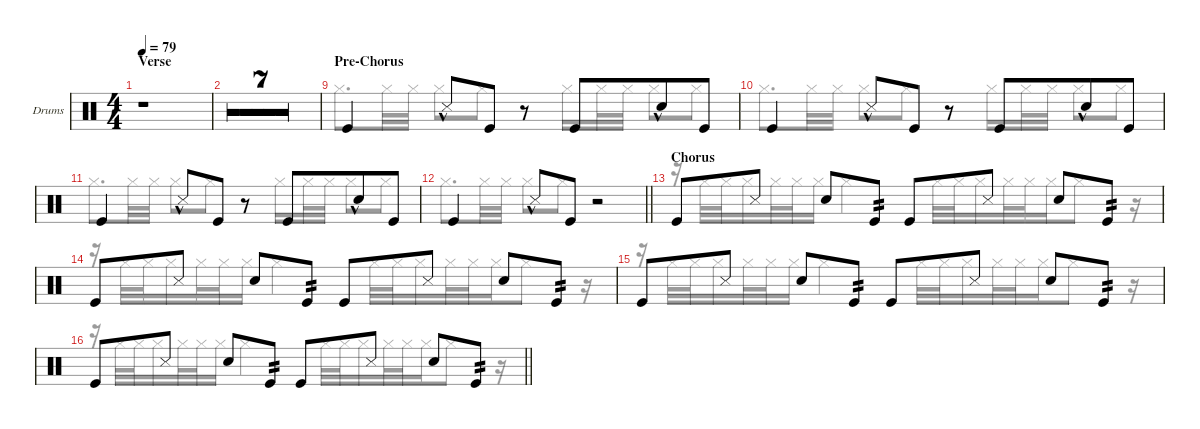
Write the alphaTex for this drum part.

\defaultSystemsLayout 4
\hideDynamics
\bracketExtendMode groupsimilarinstruments
\firstSystemTrackNameOrientation horizontal
\otherSystemsTrackNameOrientation horizontal
\track ("Drumkit" "Drums") {multiBarRest instrument percussion}
\staff {score}
\articulation defaults
\voice
\ts (4 4)
\section ("" "Verse")
\tempo 79
\clef neutral
\ks c
r.1{dy mf} |
r.1 |
r.1 |
r.1 |
r.1 |
r.1 |
r.1 |
\barLineRight lightlight
r.1 |
\section ("" "Pre-Chorus")
"Kick (hit)".4 "Snare (side stick) 3"{hac}.8 "Kick (hit)".8 r.8 "Kick (hit)".8{beam merge} "Snare (hit) 2"{hac}.8{beam merge} "Kick (hit)".8{beam merge} |
"Kick (hit)".4 "Snare (side stick) 3"{hac}.8 "Kick (hit)".8 r.8 "Kick (hit)".8{beam merge} "Snare (hit) 2"{hac}.8{beam merge} "Kick (hit)".8{beam merge} |
"Kick (hit)".4 "Snare (side stick) 3"{hac}.8 "Kick (hit)".8 r.8 "Kick (hit)".8{beam merge} "Snare (hit) 2"{hac}.8{beam merge} "Kick (hit)".8{beam merge} |
\barLineRight lightlight "Kick (hit)".4 "Snare (side stick) 3"{hac}.8 "Kick (hit)".8
r.2 |
\section ("" "Chorus")
"Kick (hit)".8 "Snare (side stick) 3".8 "Snare (hit) 2".8 "Kick (hit)".8{tp 2} "Kick (hit)".8 "Snare (side stick) 3".8 "Snare (hit) 2".8 "Kick (hit)".8{tp 2} |
"Kick (hit)".8 "Snare (side stick) 3".8 "Snare (hit) 2".8 "Kick (hit)".8{tp 2} "Kick (hit)".8 "Snare (side stick) 3".8 "Snare (hit) 2".8 "Kick (hit)".8{tp 2} |
"Kick (hit)".8 "Snare (side stick) 3".8 "Snare (hit) 2".8 "Kick (hit)".8{tp 2} "Kick (hit)".8 "Snare (side stick) 3".8 "Snare (hit) 2".8 "Kick (hit)".8{tp 2} |
\barLineRight lightlight "Kick (hit)".8 "Snare (side stick) 3".8 "Snare (hit) 2".8 "Kick (hit)".8{tp 2} "Kick (hit)".8 "Snare (side stick) 3".8 "Snare (hit) 2".8 "Kick (hit)".8{tp 2}
\voice
\clef neutral
\ottava regular
\simile none
\ks c
|
|
|
|
|
|
|
\barLineRight lightlight
|
"Hi-Hat (closed)".8{d} "Hi-Hat (closed)".32 "Hi-Hat (closed)".32 "Hi-Hat (closed)".8 "Hi-Hat (closed)".8 r.8 "Hi-Hat (closed)".16 "Hi-Hat (closed)".32 "Hi-Hat (closed)".32 "Hi-Hat (closed)".8 "Hi-Hat (closed)".8 |
"Hi-Hat (closed)".8{d} "Hi-Hat (closed)".32 "Hi-Hat (closed)".32 "Hi-Hat (closed)".8 "Hi-Hat (closed)".8 r.8 "Hi-Hat (closed)".16 "Hi-Hat (closed)".32 "Hi-Hat (closed)".32 "Hi-Hat (closed)".8 "Hi-Hat (closed)".8 |
"Hi-Hat (closed)".8{d} "Hi-Hat (closed)".32 "Hi-Hat (closed)".32 "Hi-Hat (closed)".8 "Hi-Hat (closed)".8 r.8 "Hi-Hat (closed)".16 "Hi-Hat (closed)".32 "Hi-Hat (closed)".32 "Hi-Hat (closed)".8 "Hi-Hat (closed)".8 |
\barLineRight lightlight "Hi-Hat (closed)".8{d} "Hi-Hat (closed)".32 "Hi-Hat (closed)".32 "Hi-Hat (closed)".8 "Hi-Hat (closed)".8
r.2 |
r.16 "Hi-Hat (closed)".32{dy mp} "Hi-Hat (closed)".32 "Hi-Hat (closed)".16 "Hi-Hat (closed)".32 "Hi-Hat (closed)".32{beam merge} "Hi-Hat (closed)".16 "Hi-Hat (closed)".4 "Hi-Hat (closed)".32 "Hi-Hat (closed)".32 "Hi-Hat (closed)".16 "Hi-Hat (closed)".32 "Hi-Hat (closed)".32{beam merge} "Hi-Hat (closed)".16 "Hi-Hat (closed)".8 r.16 |
r.16 "Hi-Hat (closed)".32 "Hi-Hat (closed)".32 "Hi-Hat (closed)".16 "Hi-Hat (closed)".32 "Hi-Hat (closed)".32{beam merge} "Hi-Hat (closed)".16 "Hi-Hat (closed)".4 "Hi-Hat (closed)".32 "Hi-Hat (closed)".32 "Hi-Hat (closed)".16 "Hi-Hat (closed)".32 "Hi-Hat (closed)".32{beam merge} "Hi-Hat (closed)".16 "Hi-Hat (closed)".8 r.16 |
r.16 "Hi-Hat (closed)".32 "Hi-Hat (closed)".32 "Hi-Hat (closed)".16 "Hi-Hat (closed)".32 "Hi-Hat (closed)".32{beam merge} "Hi-Hat (closed)".16 "Hi-Hat (closed)".4 "Hi-Hat (closed)".32 "Hi-Hat (closed)".32 "Hi-Hat (closed)".16 "Hi-Hat (closed)".32 "Hi-Hat (closed)".32{beam merge} "Hi-Hat (closed)".16 "Hi-Hat (closed)".8 r.16 |
\barLineRight lightlight
r.16 "Hi-Hat (closed)".32 "Hi-Hat (closed)".32 "Hi-Hat (closed)".16 "Hi-Hat (closed)".32 "Hi-Hat (closed)".32{beam merge} "Hi-Hat (closed)".16 "Hi-Hat (closed)".4 "Hi-Hat (closed)".32 "Hi-Hat (closed)".32 "Hi-Hat (closed)".16 "Hi-Hat (closed)".32 "Hi-Hat (closed)".32{beam merge} "Hi-Hat (closed)".16 "Hi-Hat (closed)".8 r.16
